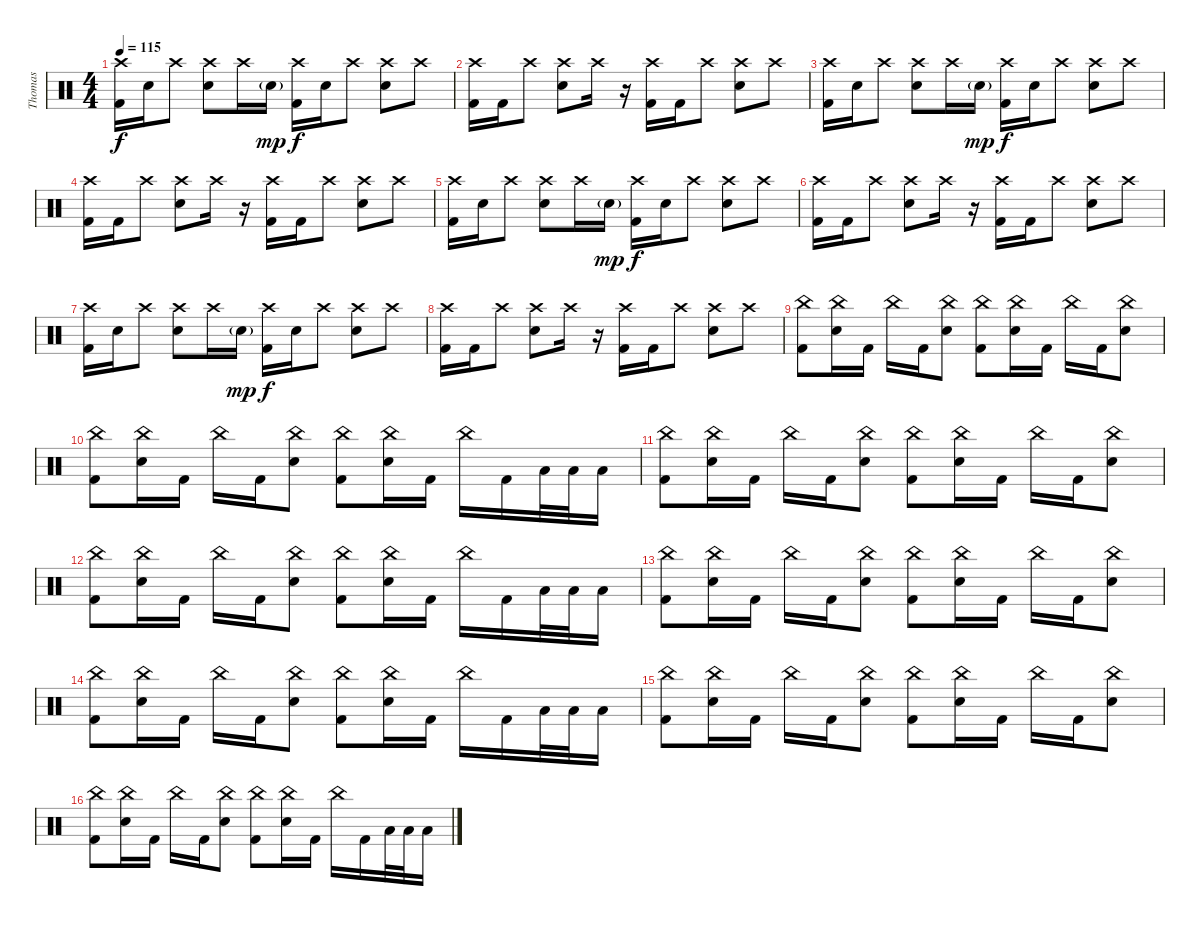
\track ("Thomas" "Thomas") {instrument percussion}
\staff {score}
\articulation defaults
\ts (4 4)
\tempo 115
\clef neutral
\ks c
("Kick (hit) 2" "Crash high (hit)").16{dy f} "Electric Snare (hit)".16 "Crash high (hit)".8 ("Electric Snare (hit)" "Crash high (hit)").8 "Crash high (hit)".16 "Electric Snare (hit)"{g}.16{dy mp} ("Kick (hit) 2" "Crash high (hit)").16{dy f} "Electric Snare (hit)".16 "Crash high (hit)".8 ("Electric Snare (hit)" "Crash high (hit)").8 "Crash high (hit)".8 |
("Kick (hit) 2" "Crash high (hit)").16 "Kick (hit) 2".16 "Crash high (hit)".8 ("Electric Snare (hit)" "Crash high (hit)").8 "Crash high (hit)".16 r.16 ("Kick (hit) 2" "Crash high (hit)").16 "Kick (hit) 2".16 "Crash high (hit)".8 ("Electric Snare (hit)" "Crash high (hit)").8 "Crash high (hit)".8 |
("Kick (hit) 2" "Crash high (hit)").16 "Electric Snare (hit)".16 "Crash high (hit)".8 ("Electric Snare (hit)" "Crash high (hit)").8 "Crash high (hit)".16 "Electric Snare (hit)"{g}.16{dy mp} ("Kick (hit) 2" "Crash high (hit)").16{dy f} "Electric Snare (hit)".16 "Crash high (hit)".8 ("Electric Snare (hit)" "Crash high (hit)").8 "Crash high (hit)".8 |
("Kick (hit) 2" "Crash high (hit)").16 "Kick (hit) 2".16 "Crash high (hit)".8 ("Electric Snare (hit)" "Crash high (hit)").8 "Crash high (hit)".16 r.16 ("Kick (hit) 2" "Crash high (hit)").16 "Kick (hit) 2".16 "Crash high (hit)".8 ("Electric Snare (hit)" "Crash high (hit)").8 "Crash high (hit)".8 |
("Kick (hit) 2" "Crash high (hit)").16 "Electric Snare (hit)".16 "Crash high (hit)".8 ("Electric Snare (hit)" "Crash high (hit)").8 "Crash high (hit)".16 "Electric Snare (hit)"{g}.16{dy mp} ("Kick (hit) 2" "Crash high (hit)").16{dy f} "Electric Snare (hit)".16 "Crash high (hit)".8 ("Electric Snare (hit)" "Crash high (hit)").8 "Crash high (hit)".8 |
("Kick (hit) 2" "Crash high (hit)").16 "Kick (hit) 2".16 "Crash high (hit)".8 ("Electric Snare (hit)" "Crash high (hit)").8 "Crash high (hit)".16 r.16 ("Kick (hit) 2" "Crash high (hit)").16 "Kick (hit) 2".16 "Crash high (hit)".8 ("Electric Snare (hit)" "Crash high (hit)").8 "Crash high (hit)".8 |
("Kick (hit) 2" "Crash high (hit)").16 "Electric Snare (hit)".16 "Crash high (hit)".8 ("Electric Snare (hit)" "Crash high (hit)").8 "Crash high (hit)".16 "Electric Snare (hit)"{g}.16{dy mp} ("Kick (hit) 2" "Crash high (hit)").16{dy f} "Electric Snare (hit)".16 "Crash high (hit)".8 ("Electric Snare (hit)" "Crash high (hit)").8 "Crash high (hit)".8 |
("Kick (hit) 2" "Crash high (hit)").16 "Kick (hit) 2".16 "Crash high (hit)".8 ("Electric Snare (hit)" "Crash high (hit)").8 "Crash high (hit)".16 r.16 ("Kick (hit) 2" "Crash high (hit)").16 "Kick (hit) 2".16 "Crash high (hit)".8 ("Electric Snare (hit)" "Crash high (hit)").8 "Crash high (hit)".8 |
("China (hit)" "Kick (hit) 2").8 ("China (hit)" "Electric Snare (hit)").16 "Kick (hit) 2".16 "China (hit)".16 "Kick (hit) 2".16 ("China (hit)" "Electric Snare (hit)").8 ("China (hit)" "Kick (hit) 2").8 ("China (hit)" "Electric Snare (hit)").16 "Kick (hit) 2".16 "China (hit)".16 "Kick (hit) 2".16 ("China (hit)" "Electric Snare (hit)").8 |
("China (hit)" "Kick (hit) 2").8 ("China (hit)" "Electric Snare (hit)").16 "Kick (hit) 2".16 "China (hit)".16 "Kick (hit) 2".16 ("China (hit)" "Electric Snare (hit)").8 ("China (hit)" "Kick (hit) 2").8 ("China (hit)" "Electric Snare (hit)").16 "Kick (hit) 2".16 "China (hit)".16 "Kick (hit) 2".16 "Low Tom (hit)".32 "Low Tom (hit)".32 "Low Tom (hit)".16 |
("China (hit)" "Kick (hit) 2").8 ("China (hit)" "Electric Snare (hit)").16 "Kick (hit) 2".16 "China (hit)".16 "Kick (hit) 2".16 ("China (hit)" "Electric Snare (hit)").8 ("China (hit)" "Kick (hit) 2").8 ("China (hit)" "Electric Snare (hit)").16 "Kick (hit) 2".16 "China (hit)".16 "Kick (hit) 2".16 ("China (hit)" "Electric Snare (hit)").8 |
("China (hit)" "Kick (hit) 2").8 ("China (hit)" "Electric Snare (hit)").16 "Kick (hit) 2".16 "China (hit)".16 "Kick (hit) 2".16 ("China (hit)" "Electric Snare (hit)").8 ("China (hit)" "Kick (hit) 2").8 ("China (hit)" "Electric Snare (hit)").16 "Kick (hit) 2".16 "China (hit)".16 "Kick (hit) 2".16 "Low Tom (hit)".32 "Low Tom (hit)".32 "Low Tom (hit)".16 |
("China (hit)" "Kick (hit) 2").8 ("China (hit)" "Electric Snare (hit)").16 "Kick (hit) 2".16 "China (hit)".16 "Kick (hit) 2".16 ("China (hit)" "Electric Snare (hit)").8 ("China (hit)" "Kick (hit) 2").8 ("China (hit)" "Electric Snare (hit)").16 "Kick (hit) 2".16 "China (hit)".16 "Kick (hit) 2".16 ("China (hit)" "Electric Snare (hit)").8 |
("China (hit)" "Kick (hit) 2").8 ("China (hit)" "Electric Snare (hit)").16 "Kick (hit) 2".16 "China (hit)".16 "Kick (hit) 2".16 ("China (hit)" "Electric Snare (hit)").8 ("China (hit)" "Kick (hit) 2").8 ("China (hit)" "Electric Snare (hit)").16 "Kick (hit) 2".16 "China (hit)".16 "Kick (hit) 2".16 "Low Tom (hit)".32 "Low Tom (hit)".32 "Low Tom (hit)".16 |
("China (hit)" "Kick (hit) 2").8 ("China (hit)" "Electric Snare (hit)").16 "Kick (hit) 2".16 "China (hit)".16 "Kick (hit) 2".16 ("China (hit)" "Electric Snare (hit)").8 ("China (hit)" "Kick (hit) 2").8 ("China (hit)" "Electric Snare (hit)").16 "Kick (hit) 2".16 "China (hit)".16 "Kick (hit) 2".16 ("China (hit)" "Electric Snare (hit)").8 |
("China (hit)" "Kick (hit) 2").8 ("China (hit)" "Electric Snare (hit)").16 "Kick (hit) 2".16 "China (hit)".16 "Kick (hit) 2".16 ("China (hit)" "Electric Snare (hit)").8 ("China (hit)" "Kick (hit) 2").8 ("China (hit)" "Electric Snare (hit)").16 "Kick (hit) 2".16 "China (hit)".16 "Kick (hit) 2".16 "Low Tom (hit)".32 "Low Tom (hit)".32 "Low Tom (hit)".16
